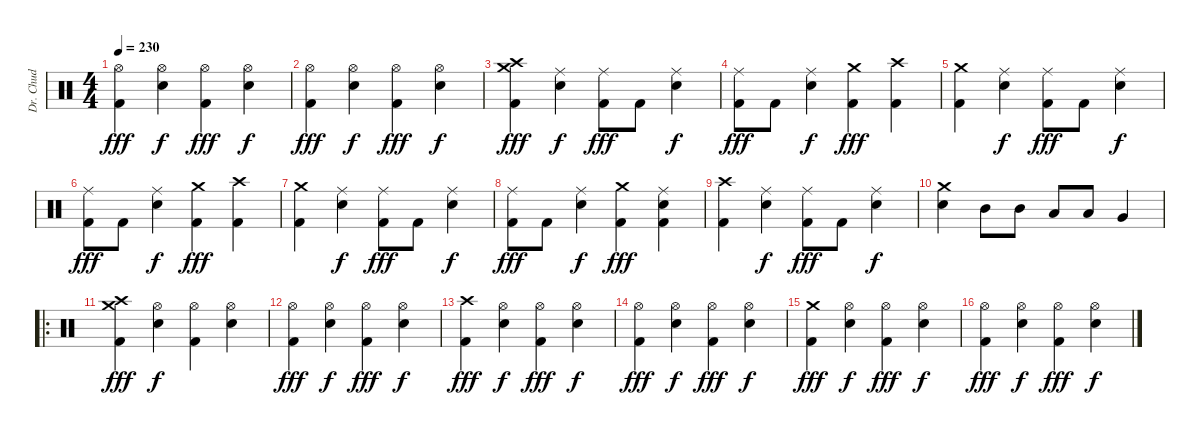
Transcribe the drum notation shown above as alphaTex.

\track ("Dr. Chud" "Dr. Chud") {instrument percussion}
\staff {score}
\articulation defaults
\ts (4 4)
\tempo 230
\clef neutral
\ks c
("Hi-Hat (open)" "Kick (hit) 2").4{dy fff} ("Hi-Hat (open)" "Snare (hit) 2").4{dy f} ("Hi-Hat (open)" "Kick (hit) 2").4{dy fff} ("Hi-Hat (open)" "Snare (hit) 2").4{dy f} |
("Hi-Hat (open)" "Kick (hit) 2").4{dy fff} ("Hi-Hat (open)" "Snare (hit) 2").4{dy f} ("Hi-Hat (open)" "Kick (hit) 2").4{dy fff} ("Hi-Hat (open)" "Snare (hit) 2").4{dy f} |
("Crash high (hit)" "Crash medium (hit)" "Kick (hit) 2").4{dy fff} ("Ride (middle)" "Snare (hit) 2").4{dy f} ("Ride (middle)" "Kick (hit) 2").8{dy fff} "Kick (hit) 2".8 ("Ride (middle)" "Snare (hit) 2").4{dy f} |
("Ride (middle)" "Kick (hit) 2").8{dy fff} "Kick (hit) 2".8 ("Ride (middle)" "Snare (hit) 2").4{dy f} ("Crash medium (hit)" "Kick (hit) 2").4{dy fff} ("Crash high (hit)" "Kick (hit) 2").4 |
("Crash medium (hit)" "Kick (hit) 2").4 ("Ride (middle)" "Snare (hit) 2").4{dy f} ("Ride (middle)" "Kick (hit) 2").8{dy fff} "Kick (hit) 2".8 ("Ride (middle)" "Snare (hit) 2").4{dy f} |
("Ride (middle)" "Kick (hit) 2").8{dy fff} "Kick (hit) 2".8 ("Ride (middle)" "Snare (hit) 2").4{dy f} ("Crash medium (hit)" "Kick (hit) 2").4{dy fff} ("Crash high (hit)" "Kick (hit) 2").4 |
("Crash medium (hit)" "Kick (hit) 2").4 ("Ride (middle)" "Snare (hit) 2").4{dy f} ("Ride (middle)" "Kick (hit) 2").8{dy fff} "Kick (hit) 2".8 ("Ride (middle)" "Snare (hit) 2").4{dy f} |
("Ride (middle)" "Kick (hit) 2").8{dy fff} "Kick (hit) 2".8 ("Ride (middle)" "Snare (hit) 2").4{dy f} ("Crash medium (hit)" "Kick (hit) 2").4{dy fff} ("Ride (middle)" "Snare (hit) 2" "Kick (hit) 2").4 |
("Crash high (hit)" "Kick (hit) 2").4 ("Ride (middle)" "Snare (hit) 2").4{dy f} ("Ride (middle)" "Kick (hit) 2").8{dy fff} "Kick (hit) 2".8 ("Ride (middle)" "Snare (hit) 2").4{dy f} |
("Crash medium (hit)" "Snare (hit) 2").4 "Mid Tom (hit)".8 "Mid Tom (hit)".8 "Low Tom (hit)".8 "Low Tom (hit)".8 "Very Low Tom (hit)".4 |
\ro
("Crash high (hit)" "Crash medium (hit)" "Kick (hit) 2").4{dy fff} ("Hi-Hat (open)" "Snare (hit) 2").4{dy f} ("Hi-Hat (open)" "Kick (hit) 2").4 ("Hi-Hat (open)" "Snare (hit) 2").4 |
("Hi-Hat (open)" "Kick (hit) 2").4{dy fff} ("Hi-Hat (open)" "Snare (hit) 2").4{dy f} ("Hi-Hat (open)" "Kick (hit) 2").4{dy fff} ("Hi-Hat (open)" "Snare (hit) 2").4{dy f} |
("Crash high (hit)" "Kick (hit) 2").4{dy fff} ("Hi-Hat (open)" "Snare (hit) 2").4{dy f} ("Hi-Hat (open)" "Kick (hit) 2").4{dy fff} ("Hi-Hat (open)" "Snare (hit) 2").4{dy f} |
("Hi-Hat (open)" "Kick (hit) 2").4{dy fff} ("Hi-Hat (open)" "Snare (hit) 2").4{dy f} ("Hi-Hat (open)" "Kick (hit) 2").4{dy fff} ("Hi-Hat (open)" "Snare (hit) 2").4{dy f} |
("Crash medium (hit)" "Kick (hit) 2").4{dy fff} ("Hi-Hat (open)" "Snare (hit) 2").4{dy f} ("Hi-Hat (open)" "Kick (hit) 2").4{dy fff} ("Hi-Hat (open)" "Snare (hit) 2").4{dy f} |
("Hi-Hat (open)" "Kick (hit) 2").4{dy fff} ("Hi-Hat (open)" "Snare (hit) 2").4{dy f} ("Hi-Hat (open)" "Kick (hit) 2").4{dy fff} ("Hi-Hat (open)" "Snare (hit) 2").4{dy f}
